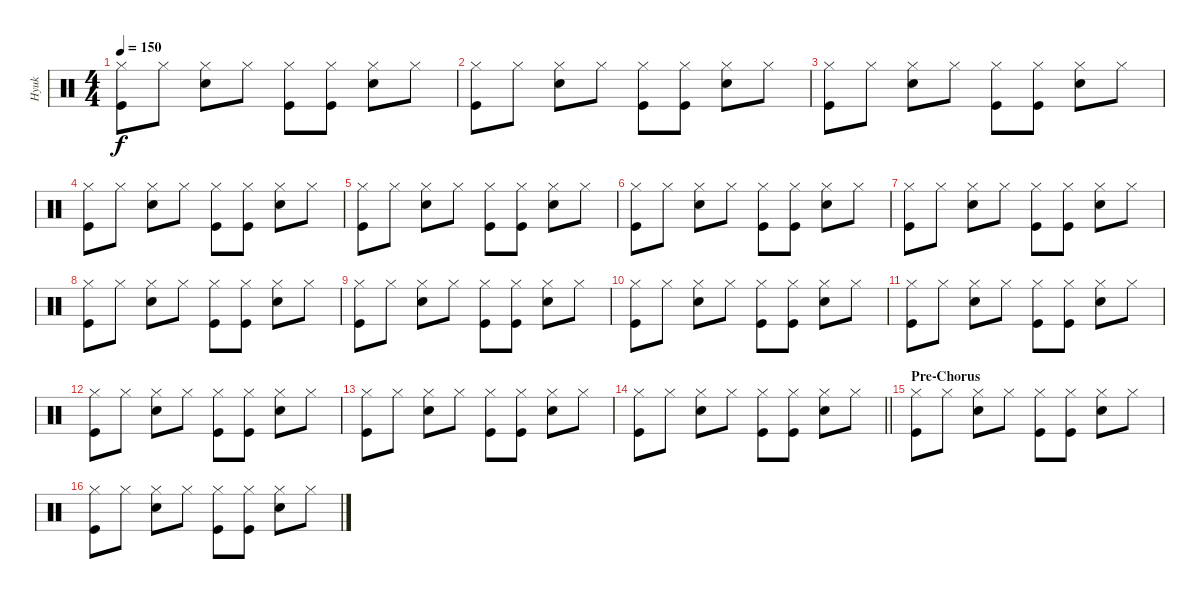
\track ("Hyuk" "Hyuk") {instrument percussion}
\staff {score}
\articulation defaults
\ts (4 4)
\tempo 150
\clef neutral
\ks c
("Hi-Hat (closed)" "Kick (hit)").8{dy f} "Hi-Hat (closed)".8 ("Hi-Hat (closed)" "Snare (hit) 2").8 "Hi-Hat (closed)".8 ("Hi-Hat (closed)" "Kick (hit)").8 ("Hi-Hat (closed)" "Kick (hit)").8 ("Hi-Hat (closed)" "Snare (hit) 2").8 "Hi-Hat (closed)".8 |
("Hi-Hat (closed)" "Kick (hit)").8 "Hi-Hat (closed)".8 ("Hi-Hat (closed)" "Snare (hit) 2").8 "Hi-Hat (closed)".8 ("Hi-Hat (closed)" "Kick (hit)").8 ("Hi-Hat (closed)" "Kick (hit)").8 ("Hi-Hat (closed)" "Snare (hit) 2").8 "Hi-Hat (closed)".8 |
("Hi-Hat (closed)" "Kick (hit)").8 "Hi-Hat (closed)".8 ("Hi-Hat (closed)" "Snare (hit) 2").8 "Hi-Hat (closed)".8 ("Hi-Hat (closed)" "Kick (hit)").8 ("Hi-Hat (closed)" "Kick (hit)").8 ("Hi-Hat (closed)" "Snare (hit) 2").8 "Hi-Hat (closed)".8 |
("Hi-Hat (closed)" "Kick (hit)").8 "Hi-Hat (closed)".8 ("Hi-Hat (closed)" "Snare (hit) 2").8 "Hi-Hat (closed)".8 ("Hi-Hat (closed)" "Kick (hit)").8 ("Hi-Hat (closed)" "Kick (hit)").8 ("Hi-Hat (closed)" "Snare (hit) 2").8 "Hi-Hat (closed)".8 |
("Hi-Hat (closed)" "Kick (hit)").8 "Hi-Hat (closed)".8 ("Hi-Hat (closed)" "Snare (hit) 2").8 "Hi-Hat (closed)".8 ("Hi-Hat (closed)" "Kick (hit)").8 ("Hi-Hat (closed)" "Kick (hit)").8 ("Hi-Hat (closed)" "Snare (hit) 2").8 "Hi-Hat (closed)".8 |
("Hi-Hat (closed)" "Kick (hit)").8 "Hi-Hat (closed)".8 ("Hi-Hat (closed)" "Snare (hit) 2").8 "Hi-Hat (closed)".8 ("Hi-Hat (closed)" "Kick (hit)").8 ("Hi-Hat (closed)" "Kick (hit)").8 ("Hi-Hat (closed)" "Snare (hit) 2").8 "Hi-Hat (closed)".8 |
("Hi-Hat (closed)" "Kick (hit)").8 "Hi-Hat (closed)".8 ("Hi-Hat (closed)" "Snare (hit) 2").8 "Hi-Hat (closed)".8 ("Hi-Hat (closed)" "Kick (hit)").8 ("Hi-Hat (closed)" "Kick (hit)").8 ("Hi-Hat (closed)" "Snare (hit) 2").8 "Hi-Hat (closed)".8 |
("Hi-Hat (closed)" "Kick (hit)").8 "Hi-Hat (closed)".8 ("Hi-Hat (closed)" "Snare (hit) 2").8 "Hi-Hat (closed)".8 ("Hi-Hat (closed)" "Kick (hit)").8 ("Hi-Hat (closed)" "Kick (hit)").8 ("Hi-Hat (closed)" "Snare (hit) 2").8 "Hi-Hat (closed)".8 |
("Hi-Hat (closed)" "Kick (hit)").8 "Hi-Hat (closed)".8 ("Hi-Hat (closed)" "Snare (hit) 2").8 "Hi-Hat (closed)".8 ("Hi-Hat (closed)" "Kick (hit)").8 ("Hi-Hat (closed)" "Kick (hit)").8 ("Hi-Hat (closed)" "Snare (hit) 2").8 "Hi-Hat (closed)".8 |
("Hi-Hat (closed)" "Kick (hit)").8 "Hi-Hat (closed)".8 ("Hi-Hat (closed)" "Snare (hit) 2").8 "Hi-Hat (closed)".8 ("Hi-Hat (closed)" "Kick (hit)").8 ("Hi-Hat (closed)" "Kick (hit)").8 ("Hi-Hat (closed)" "Snare (hit) 2").8 "Hi-Hat (closed)".8 |
("Hi-Hat (closed)" "Kick (hit)").8 "Hi-Hat (closed)".8 ("Hi-Hat (closed)" "Snare (hit) 2").8 "Hi-Hat (closed)".8 ("Hi-Hat (closed)" "Kick (hit)").8 ("Hi-Hat (closed)" "Kick (hit)").8 ("Hi-Hat (closed)" "Snare (hit) 2").8 "Hi-Hat (closed)".8 |
("Hi-Hat (closed)" "Kick (hit)").8 "Hi-Hat (closed)".8 ("Hi-Hat (closed)" "Snare (hit) 2").8 "Hi-Hat (closed)".8 ("Hi-Hat (closed)" "Kick (hit)").8 ("Hi-Hat (closed)" "Kick (hit)").8 ("Hi-Hat (closed)" "Snare (hit) 2").8 "Hi-Hat (closed)".8 |
("Hi-Hat (closed)" "Kick (hit)").8 "Hi-Hat (closed)".8 ("Hi-Hat (closed)" "Snare (hit) 2").8 "Hi-Hat (closed)".8 ("Hi-Hat (closed)" "Kick (hit)").8 ("Hi-Hat (closed)" "Kick (hit)").8 ("Hi-Hat (closed)" "Snare (hit) 2").8 "Hi-Hat (closed)".8 |
\barLineRight lightlight
("Hi-Hat (closed)" "Kick (hit)").8 "Hi-Hat (closed)".8 ("Hi-Hat (closed)" "Snare (hit) 2").8 "Hi-Hat (closed)".8 ("Hi-Hat (closed)" "Kick (hit)").8 ("Hi-Hat (closed)" "Kick (hit)").8 ("Hi-Hat (closed)" "Snare (hit) 2").8 "Hi-Hat (closed)".8 |
\section ("" "Pre-Chorus")
("Hi-Hat (closed)" "Kick (hit)").8 "Hi-Hat (closed)".8 ("Hi-Hat (closed)" "Snare (hit) 2").8 "Hi-Hat (closed)".8 ("Hi-Hat (closed)" "Kick (hit)").8 ("Hi-Hat (closed)" "Kick (hit)").8 ("Hi-Hat (closed)" "Snare (hit) 2").8 "Hi-Hat (closed)".8 |
("Hi-Hat (closed)" "Kick (hit)").8 "Hi-Hat (closed)".8 ("Hi-Hat (closed)" "Snare (hit) 2").8 "Hi-Hat (closed)".8 ("Hi-Hat (closed)" "Kick (hit)").8 ("Hi-Hat (closed)" "Kick (hit)").8 ("Hi-Hat (closed)" "Snare (hit) 2").8 "Hi-Hat (closed)".8
